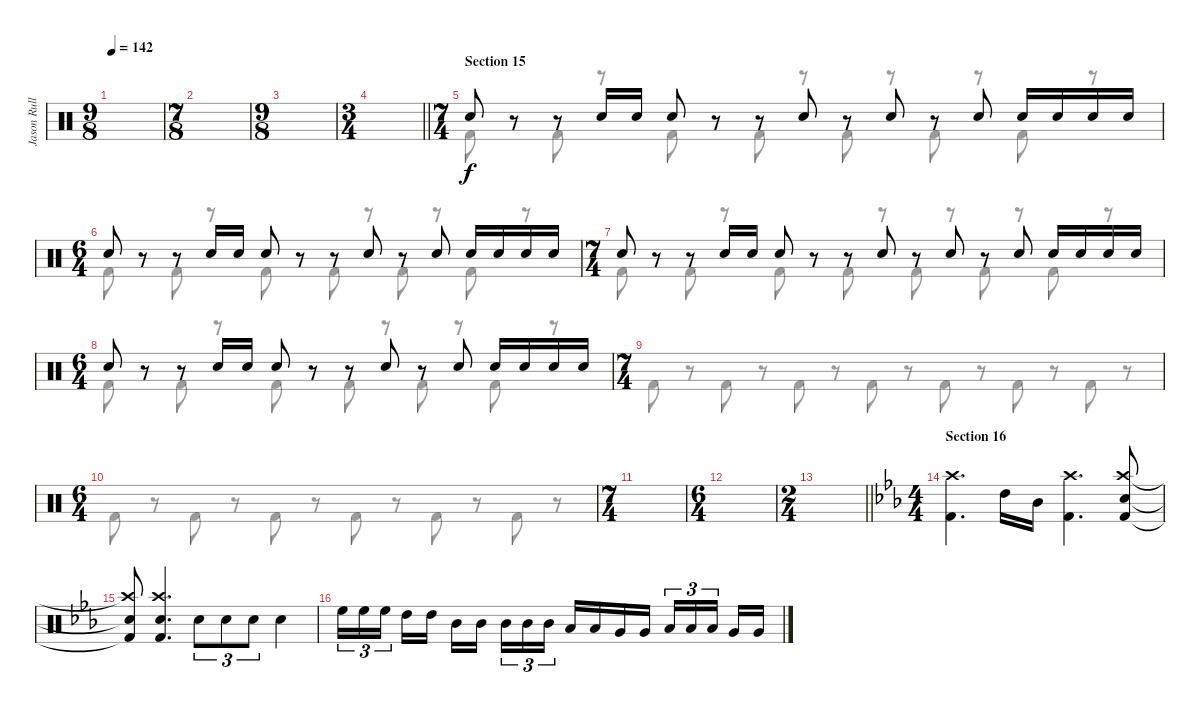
\track ("Jason Rullo (drums)" "Jason Rull") {instrument percussion}
\staff {score}
\articulation defaults
\voice
\ts (9 8)
\tempo 142
\clef neutral
\ks aminor
|
\ts (7 8)
|
\ts (9 8)
|
\ts (3 4)
\barLineRight lightlight
|
\ts (7 4)
\section ("" "Section 15")
"Electric Snare (hit)".8 r.8 r.8 "Electric Snare (hit)".16 "Electric Snare (hit)".16 "Electric Snare (hit)".8 r.8 r.8 "Electric Snare (hit)".8 r.8 "Electric Snare (hit)".8 r.8 "Electric Snare (hit)".8 "Electric Snare (hit)".16 "Electric Snare (hit)".16 "Electric Snare (hit)".16 "Electric Snare (hit)".16 |
\ts (6 4)
"Electric Snare (hit)".8 r.8 r.8 "Electric Snare (hit)".16 "Electric Snare (hit)".16 "Electric Snare (hit)".8 r.8 r.8 "Electric Snare (hit)".8 r.8 "Electric Snare (hit)".8 "Electric Snare (hit)".16 "Electric Snare (hit)".16 "Electric Snare (hit)".16 "Electric Snare (hit)".16 |
\ts (7 4)
"Electric Snare (hit)".8 r.8 r.8 "Electric Snare (hit)".16 "Electric Snare (hit)".16 "Electric Snare (hit)".8 r.8 r.8 "Electric Snare (hit)".8 r.8 "Electric Snare (hit)".8 r.8 "Electric Snare (hit)".8 "Electric Snare (hit)".16 "Electric Snare (hit)".16 "Electric Snare (hit)".16 "Electric Snare (hit)".16 |
\ts (6 4)
"Electric Snare (hit)".8 r.8 r.8 "Electric Snare (hit)".16 "Electric Snare (hit)".16 "Electric Snare (hit)".8 r.8 r.8 "Electric Snare (hit)".8 r.8 "Electric Snare (hit)".8 "Electric Snare (hit)".16 "Electric Snare (hit)".16 "Electric Snare (hit)".16 "Electric Snare (hit)".16 |
\ts (7 4)
|
\ts (6 4)
|
\ts (7 4)
|
\ts (6 4)
|
\ts (2 4)
\barLineRight lightlight
|
\ts (4 4)
\section ("" "Section 16")
\ks cminor
("Crash high (hit)" "Kick (hit) 2").4{d} "High Tom (hit)".16 "Mid Tom (hit)".16 ("Crash high (hit)" "Kick (hit) 2").4{d} ("Electric Snare (hit)" "Crash high (hit)" "Kick (hit) 2").8 |
("Electric Snare (hit)"{t} "Crash high (hit)"{t} "Kick (hit) 2"{t}).8 ("Electric Snare (hit)" "Crash high (hit)" "Kick (hit) 2").4{d} "Electric Snare (hit)".8{tu (3 2)} "Electric Snare (hit)".8{tu (3 2)} "Electric Snare (hit)".8{tu (3 2)} "Electric Snare (hit)".4 |
"High Floor Tom (hit)".16{tu (3 2)} "High Floor Tom (hit)".16{tu (3 2)} "High Floor Tom (hit)".16{tu (3 2) beam splitsecondary} "High Tom (hit)".16 "High Tom (hit)".16 "Mid Tom (hit)".16 "Mid Tom (hit)".16{beam splitsecondary} "Mid Tom (hit)".16{tu (3 2)} "Mid Tom (hit)".16{tu (3 2)} "Mid Tom (hit)".16{tu (3 2)} "Low Tom (hit)".16 "Low Tom (hit)".16 "Very Low Tom (hit)".16 "Very Low Tom (hit)".16 "Low Tom (hit)".16{tu (3 2)} "Low Tom (hit)".16{tu (3 2)} "Low Tom (hit)".16{tu (3 2) beam splitsecondary} "Very Low Tom (hit)".16 "Very Low Tom (hit)".16
\voice
\clef neutral
\ottava regular
\simile none
\ks aminor
|
|
|
\barLineRight lightlight
|
"Kick (hit) 2".8 r.8 "Kick (hit) 2".8 r.8 "Kick (hit) 2".8 r.8 "Kick (hit) 2".8 r.8 "Kick (hit) 2".8 r.8 "Kick (hit) 2".8 r.8 "Kick (hit) 2".8 r.8 |
"Kick (hit) 2".8 r.8 "Kick (hit) 2".8 r.8 "Kick (hit) 2".8 r.8 "Kick (hit) 2".8 r.8 "Kick (hit) 2".8 r.8 "Kick (hit) 2".8 r.8 |
"Kick (hit) 2".8 r.8 "Kick (hit) 2".8 r.8 "Kick (hit) 2".8 r.8 "Kick (hit) 2".8 r.8 "Kick (hit) 2".8 r.8 "Kick (hit) 2".8 r.8 "Kick (hit) 2".8 r.8 |
"Kick (hit) 2".8 r.8 "Kick (hit) 2".8 r.8 "Kick (hit) 2".8 r.8 "Kick (hit) 2".8 r.8 "Kick (hit) 2".8 r.8 "Kick (hit) 2".8 r.8 |
"Kick (hit) 2".8 r.8 "Kick (hit) 2".8 r.8 "Kick (hit) 2".8 r.8 "Kick (hit) 2".8 r.8 "Kick (hit) 2".8 r.8 "Kick (hit) 2".8 r.8 "Kick (hit) 2".8 r.8 |
"Kick (hit) 2".8 r.8 "Kick (hit) 2".8 r.8 "Kick (hit) 2".8 r.8 "Kick (hit) 2".8 r.8 "Kick (hit) 2".8 r.8 "Kick (hit) 2".8 r.8 |
|
|
\barLineRight lightlight
|
\ks cminor
|
|
